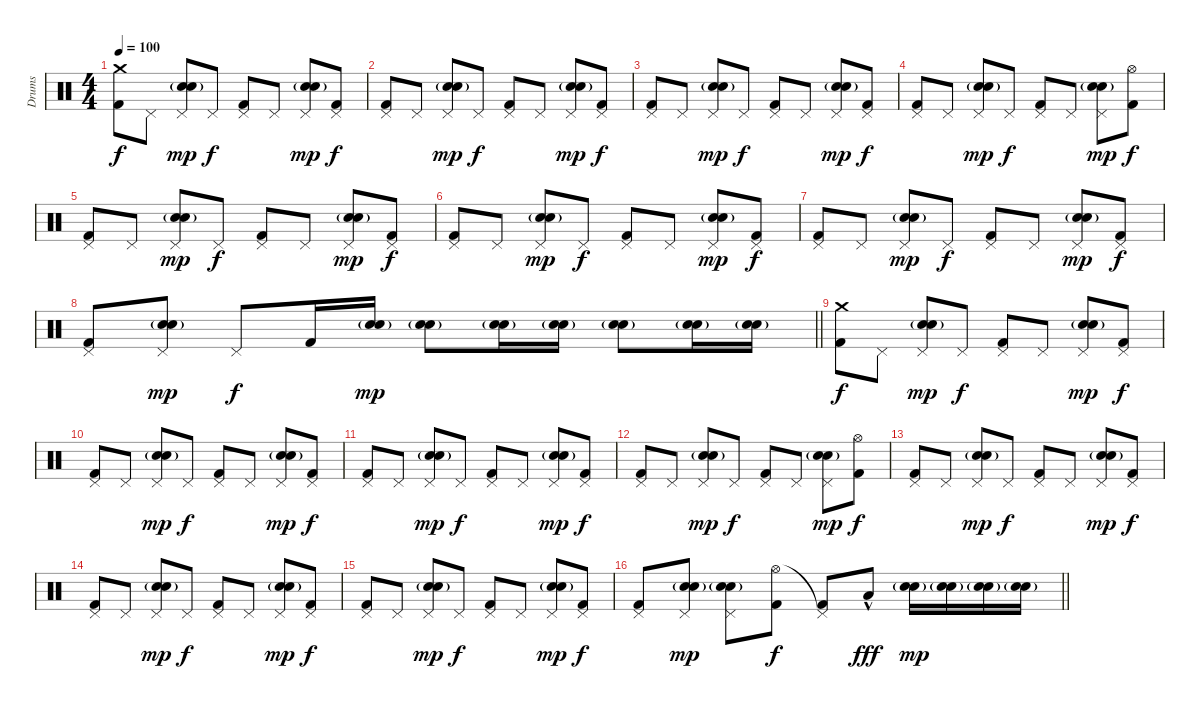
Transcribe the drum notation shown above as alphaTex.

\track ("Drums" "Drums") {instrument percussion}
\staff {score}
\articulation defaults
\ts (4 4)
\tempo 100
\clef neutral
\ks c
("Crash medium (hit)" "Kick (hit) 2").8{dy f} "Pedal Hi-Hat (hit)".8 ("Pedal Hi-Hat (hit)" "Snare (hit) 2" "Electric Snare (hit)"{g}).8{dy mp} "Pedal Hi-Hat (hit)".8{dy f} ("Pedal Hi-Hat (hit)" "Kick (hit) 2").8 "Pedal Hi-Hat (hit)".8 ("Pedal Hi-Hat (hit)" "Snare (hit) 2" "Electric Snare (hit)"{g}).8{dy mp} ("Pedal Hi-Hat (hit)" "Kick (hit) 2").8{dy f} |
("Pedal Hi-Hat (hit)" "Kick (hit) 2").8 "Pedal Hi-Hat (hit)".8 ("Pedal Hi-Hat (hit)" "Snare (hit) 2" "Electric Snare (hit)"{g}).8{dy mp} "Pedal Hi-Hat (hit)".8{dy f} ("Pedal Hi-Hat (hit)" "Kick (hit) 2").8 "Pedal Hi-Hat (hit)".8 ("Pedal Hi-Hat (hit)" "Snare (hit) 2" "Electric Snare (hit)"{g}).8{dy mp} ("Pedal Hi-Hat (hit)" "Kick (hit) 2").8{dy f} |
("Pedal Hi-Hat (hit)" "Kick (hit) 2").8 "Pedal Hi-Hat (hit)".8 ("Pedal Hi-Hat (hit)" "Snare (hit) 2" "Electric Snare (hit)"{g}).8{dy mp} "Pedal Hi-Hat (hit)".8{dy f} ("Pedal Hi-Hat (hit)" "Kick (hit) 2").8 "Pedal Hi-Hat (hit)".8 ("Pedal Hi-Hat (hit)" "Snare (hit) 2" "Electric Snare (hit)"{g}).8{dy mp} ("Pedal Hi-Hat (hit)" "Kick (hit) 2").8{dy f} |
("Pedal Hi-Hat (hit)" "Kick (hit) 2").8 "Pedal Hi-Hat (hit)".8 ("Pedal Hi-Hat (hit)" "Snare (hit) 2" "Electric Snare (hit)"{g}).8{dy mp} "Pedal Hi-Hat (hit)".8{dy f} ("Pedal Hi-Hat (hit)" "Kick (hit) 2").8 "Pedal Hi-Hat (hit)".8 ("Pedal Hi-Hat (hit)" "Snare (hit) 2" "Electric Snare (hit)"{g}).8{dy mp} ("Hi-Hat (open)" "Kick (hit) 2").8{dy f} |
("Pedal Hi-Hat (hit)" "Kick (hit) 2").8 "Pedal Hi-Hat (hit)".8 ("Pedal Hi-Hat (hit)" "Snare (hit) 2" "Electric Snare (hit)"{g}).8{dy mp} "Pedal Hi-Hat (hit)".8{dy f} ("Pedal Hi-Hat (hit)" "Kick (hit) 2").8 "Pedal Hi-Hat (hit)".8 ("Pedal Hi-Hat (hit)" "Snare (hit) 2" "Electric Snare (hit)"{g}).8{dy mp} ("Pedal Hi-Hat (hit)" "Kick (hit) 2").8{dy f} |
("Pedal Hi-Hat (hit)" "Kick (hit) 2").8 "Pedal Hi-Hat (hit)".8 ("Pedal Hi-Hat (hit)" "Snare (hit) 2" "Electric Snare (hit)"{g}).8{dy mp} "Pedal Hi-Hat (hit)".8{dy f} ("Pedal Hi-Hat (hit)" "Kick (hit) 2").8 "Pedal Hi-Hat (hit)".8 ("Pedal Hi-Hat (hit)" "Snare (hit) 2" "Electric Snare (hit)"{g}).8{dy mp} ("Pedal Hi-Hat (hit)" "Kick (hit) 2").8{dy f} |
("Pedal Hi-Hat (hit)" "Kick (hit) 2").8 "Pedal Hi-Hat (hit)".8 ("Pedal Hi-Hat (hit)" "Snare (hit) 2" "Electric Snare (hit)"{g}).8{dy mp} "Pedal Hi-Hat (hit)".8{dy f} ("Pedal Hi-Hat (hit)" "Kick (hit) 2").8 "Pedal Hi-Hat (hit)".8 ("Pedal Hi-Hat (hit)" "Snare (hit) 2" "Electric Snare (hit)"{g}).8{dy mp} ("Pedal Hi-Hat (hit)" "Kick (hit) 2").8{dy f} |
\barLineRight lightlight
("Pedal Hi-Hat (hit)" "Kick (hit) 2").8 ("Pedal Hi-Hat (hit)" "Snare (hit) 2" "Electric Snare (hit)"{g}).8{dy mp} "Pedal Hi-Hat (hit)".8{dy f} "Kick (hit) 2".16 ("Snare (hit) 2"{g} "Electric Snare (hit)"{g}).16{dy mp} ("Snare (hit) 2" "Electric Snare (hit)"{g}).8 ("Snare (hit) 2" "Electric Snare (hit)"{g}).16 ("Snare (hit) 2" "Electric Snare (hit)"{g}).16 ("Snare (hit) 2" "Electric Snare (hit)"{g}).8 ("Snare (hit) 2" "Electric Snare (hit)"{g}).16 ("Snare (hit) 2" "Electric Snare (hit)"{g}).16 |
\section ("" "")
("Crash medium (hit)" "Kick (hit) 2").8{dy f} "Pedal Hi-Hat (hit)".8 ("Pedal Hi-Hat (hit)" "Snare (hit) 2" "Electric Snare (hit)"{g}).8{dy mp} "Pedal Hi-Hat (hit)".8{dy f} ("Pedal Hi-Hat (hit)" "Kick (hit) 2").8 "Pedal Hi-Hat (hit)".8 ("Pedal Hi-Hat (hit)" "Snare (hit) 2" "Electric Snare (hit)"{g}).8{dy mp} ("Pedal Hi-Hat (hit)" "Kick (hit) 2").8{dy f} |
("Pedal Hi-Hat (hit)" "Kick (hit) 2").8 "Pedal Hi-Hat (hit)".8 ("Pedal Hi-Hat (hit)" "Snare (hit) 2" "Electric Snare (hit)"{g}).8{dy mp} "Pedal Hi-Hat (hit)".8{dy f} ("Pedal Hi-Hat (hit)" "Kick (hit) 2").8 "Pedal Hi-Hat (hit)".8 ("Pedal Hi-Hat (hit)" "Snare (hit) 2" "Electric Snare (hit)"{g}).8{dy mp} ("Pedal Hi-Hat (hit)" "Kick (hit) 2").8{dy f} |
("Pedal Hi-Hat (hit)" "Kick (hit) 2").8 "Pedal Hi-Hat (hit)".8 ("Pedal Hi-Hat (hit)" "Snare (hit) 2" "Electric Snare (hit)"{g}).8{dy mp} "Pedal Hi-Hat (hit)".8{dy f} ("Pedal Hi-Hat (hit)" "Kick (hit) 2").8 "Pedal Hi-Hat (hit)".8 ("Pedal Hi-Hat (hit)" "Snare (hit) 2" "Electric Snare (hit)"{g}).8{dy mp} ("Pedal Hi-Hat (hit)" "Kick (hit) 2").8{dy f} |
("Pedal Hi-Hat (hit)" "Kick (hit) 2").8 "Pedal Hi-Hat (hit)".8 ("Pedal Hi-Hat (hit)" "Snare (hit) 2" "Electric Snare (hit)"{g}).8{dy mp} "Pedal Hi-Hat (hit)".8{dy f} ("Pedal Hi-Hat (hit)" "Kick (hit) 2").8 "Pedal Hi-Hat (hit)".8 ("Pedal Hi-Hat (hit)" "Snare (hit) 2" "Electric Snare (hit)"{g}).8{dy mp} ("Hi-Hat (open)" "Kick (hit) 2").8{dy f} |
("Pedal Hi-Hat (hit)" "Kick (hit) 2").8 "Pedal Hi-Hat (hit)".8 ("Pedal Hi-Hat (hit)" "Snare (hit) 2" "Electric Snare (hit)"{g}).8{dy mp} "Pedal Hi-Hat (hit)".8{dy f} ("Pedal Hi-Hat (hit)" "Kick (hit) 2").8 "Pedal Hi-Hat (hit)".8 ("Pedal Hi-Hat (hit)" "Snare (hit) 2" "Electric Snare (hit)"{g}).8{dy mp} ("Pedal Hi-Hat (hit)" "Kick (hit) 2").8{dy f} |
("Pedal Hi-Hat (hit)" "Kick (hit) 2").8 "Pedal Hi-Hat (hit)".8 ("Pedal Hi-Hat (hit)" "Snare (hit) 2" "Electric Snare (hit)"{g}).8{dy mp} "Pedal Hi-Hat (hit)".8{dy f} ("Pedal Hi-Hat (hit)" "Kick (hit) 2").8 "Pedal Hi-Hat (hit)".8 ("Pedal Hi-Hat (hit)" "Snare (hit) 2" "Electric Snare (hit)"{g}).8{dy mp} ("Pedal Hi-Hat (hit)" "Kick (hit) 2").8{dy f} |
("Pedal Hi-Hat (hit)" "Kick (hit) 2").8 "Pedal Hi-Hat (hit)".8 ("Pedal Hi-Hat (hit)" "Snare (hit) 2" "Electric Snare (hit)"{g}).8{dy mp} "Pedal Hi-Hat (hit)".8{dy f} ("Pedal Hi-Hat (hit)" "Kick (hit) 2").8 "Pedal Hi-Hat (hit)".8 ("Pedal Hi-Hat (hit)" "Snare (hit) 2" "Electric Snare (hit)"{g}).8{dy mp} ("Pedal Hi-Hat (hit)" "Kick (hit) 2").8{dy f} |
\barLineRight lightlight
("Pedal Hi-Hat (hit)" "Kick (hit) 2").8 ("Pedal Hi-Hat (hit)" "Snare (hit) 2" "Electric Snare (hit)"{g}).8{dy mp} ("Pedal Hi-Hat (hit)" "Snare (hit) 2" "Electric Snare (hit)"{g}).8 ("Hi-Hat (open)" "Kick (hit) 2").8{dy f} ("Pedal Hi-Hat (hit)"{t} "Kick (hit) 2").8 "Low Tom (hit)"{hac}.8{dy fff} ("Snare (hit) 2" "Electric Snare (hit)"{g}).16{dy mp} ("Snare (hit) 2" "Electric Snare (hit)"{g}).16 ("Snare (hit) 2" "Electric Snare (hit)"{g}).16 ("Snare (hit) 2" "Electric Snare (hit)"{g}).16
